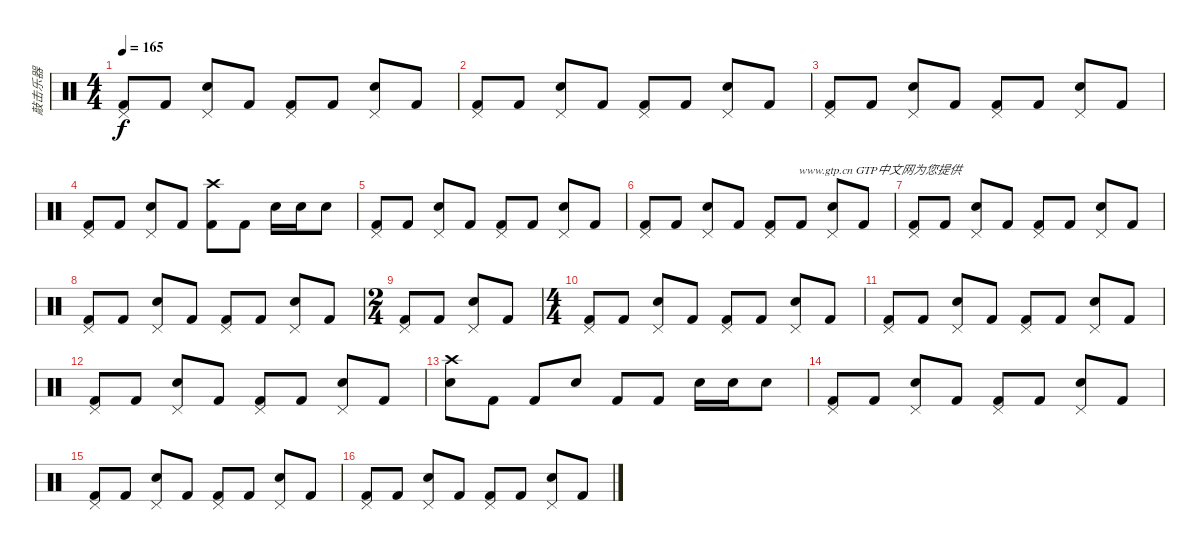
\track ("敲击乐器" "敲击乐器") {instrument percussion}
\staff {score}
\articulation defaults
\ts (4 4)
\tempo 165
\clef neutral
\ks c
("Kick (hit) 2" "Pedal Hi-Hat (hit)").8{dy f} "Kick (hit) 2".8 ("Snare (hit) 2" "Pedal Hi-Hat (hit)").8 "Kick (hit) 2".8 ("Kick (hit) 2" "Pedal Hi-Hat (hit)").8 "Kick (hit) 2".8 ("Snare (hit) 2" "Pedal Hi-Hat (hit)").8 "Kick (hit) 2".8 |
("Kick (hit) 2" "Pedal Hi-Hat (hit)").8 "Kick (hit) 2".8 ("Snare (hit) 2" "Pedal Hi-Hat (hit)").8 "Kick (hit) 2".8 ("Kick (hit) 2" "Pedal Hi-Hat (hit)").8 "Kick (hit) 2".8 ("Snare (hit) 2" "Pedal Hi-Hat (hit)").8 "Kick (hit) 2".8 |
("Kick (hit) 2" "Pedal Hi-Hat (hit)").8 "Kick (hit) 2".8 ("Snare (hit) 2" "Pedal Hi-Hat (hit)").8 "Kick (hit) 2".8 ("Kick (hit) 2" "Pedal Hi-Hat (hit)").8 "Kick (hit) 2".8 ("Snare (hit) 2" "Pedal Hi-Hat (hit)").8 "Kick (hit) 2".8 |
("Kick (hit) 2" "Pedal Hi-Hat (hit)").8 "Kick (hit) 2".8 ("Snare (hit) 2" "Pedal Hi-Hat (hit)").8 "Kick (hit) 2".8 ("Kick (hit) 2" "Crash high (hit)").8 "Kick (hit) 2".8 "Snare (hit) 2".16 "Snare (hit) 2".16 "Snare (hit) 2".8 |
("Kick (hit) 2" "Pedal Hi-Hat (hit)").8 "Kick (hit) 2".8 ("Snare (hit) 2" "Pedal Hi-Hat (hit)").8 "Kick (hit) 2".8 ("Kick (hit) 2" "Pedal Hi-Hat (hit)").8 "Kick (hit) 2".8 ("Snare (hit) 2" "Pedal Hi-Hat (hit)").8 "Kick (hit) 2".8 |
("Kick (hit) 2" "Pedal Hi-Hat (hit)").8 "Kick (hit) 2".8 ("Snare (hit) 2" "Pedal Hi-Hat (hit)").8 "Kick (hit) 2".8{txt "                    www.gtp.cn GTP中文网为您提供"} ("Kick (hit) 2" "Pedal Hi-Hat (hit)").8 "Kick (hit) 2".8 ("Snare (hit) 2" "Pedal Hi-Hat (hit)").8 "Kick (hit) 2".8 |
("Kick (hit) 2" "Pedal Hi-Hat (hit)").8 "Kick (hit) 2".8 ("Snare (hit) 2" "Pedal Hi-Hat (hit)").8 "Kick (hit) 2".8 ("Kick (hit) 2" "Pedal Hi-Hat (hit)").8 "Kick (hit) 2".8 ("Snare (hit) 2" "Pedal Hi-Hat (hit)").8 "Kick (hit) 2".8 |
("Kick (hit) 2" "Pedal Hi-Hat (hit)").8 "Kick (hit) 2".8 ("Snare (hit) 2" "Pedal Hi-Hat (hit)").8 "Kick (hit) 2".8 ("Kick (hit) 2" "Pedal Hi-Hat (hit)").8 "Kick (hit) 2".8 ("Snare (hit) 2" "Pedal Hi-Hat (hit)").8 "Kick (hit) 2".8 |
\ts (2 4)
("Kick (hit) 2" "Pedal Hi-Hat (hit)").8 "Kick (hit) 2".8 ("Snare (hit) 2" "Pedal Hi-Hat (hit)").8 "Kick (hit) 2".8 |
\ts (4 4)
("Kick (hit) 2" "Pedal Hi-Hat (hit)").8 "Kick (hit) 2".8 ("Snare (hit) 2" "Pedal Hi-Hat (hit)").8 "Kick (hit) 2".8 ("Kick (hit) 2" "Pedal Hi-Hat (hit)").8 "Kick (hit) 2".8 ("Snare (hit) 2" "Pedal Hi-Hat (hit)").8 "Kick (hit) 2".8 |
("Kick (hit) 2" "Pedal Hi-Hat (hit)").8 "Kick (hit) 2".8 ("Snare (hit) 2" "Pedal Hi-Hat (hit)").8 "Kick (hit) 2".8 ("Kick (hit) 2" "Pedal Hi-Hat (hit)").8 "Kick (hit) 2".8 ("Snare (hit) 2" "Pedal Hi-Hat (hit)").8 "Kick (hit) 2".8 |
("Kick (hit) 2" "Pedal Hi-Hat (hit)").8 "Kick (hit) 2".8 ("Snare (hit) 2" "Pedal Hi-Hat (hit)").8 "Kick (hit) 2".8 ("Kick (hit) 2" "Pedal Hi-Hat (hit)").8 "Kick (hit) 2".8 ("Snare (hit) 2" "Pedal Hi-Hat (hit)").8 "Kick (hit) 2".8 |
("Snare (hit) 2" "Crash high (hit)").8 "Kick (hit) 2".8 "Kick (hit) 2".8 "Snare (hit) 2".8 "Kick (hit) 2".8 "Kick (hit) 2".8 "Snare (hit) 2".16 "Snare (hit) 2".16 "Snare (hit) 2".8 |
("Kick (hit) 2" "Pedal Hi-Hat (hit)").8 "Kick (hit) 2".8 ("Snare (hit) 2" "Pedal Hi-Hat (hit)").8 "Kick (hit) 2".8 ("Kick (hit) 2" "Pedal Hi-Hat (hit)").8 "Kick (hit) 2".8 ("Snare (hit) 2" "Pedal Hi-Hat (hit)").8 "Kick (hit) 2".8 |
("Kick (hit) 2" "Pedal Hi-Hat (hit)").8 "Kick (hit) 2".8 ("Snare (hit) 2" "Pedal Hi-Hat (hit)").8 "Kick (hit) 2".8 ("Kick (hit) 2" "Pedal Hi-Hat (hit)").8 "Kick (hit) 2".8 ("Snare (hit) 2" "Pedal Hi-Hat (hit)").8 "Kick (hit) 2".8 |
("Kick (hit) 2" "Pedal Hi-Hat (hit)").8 "Kick (hit) 2".8 ("Snare (hit) 2" "Pedal Hi-Hat (hit)").8 "Kick (hit) 2".8 ("Kick (hit) 2" "Pedal Hi-Hat (hit)").8 "Kick (hit) 2".8 ("Snare (hit) 2" "Pedal Hi-Hat (hit)").8 "Kick (hit) 2".8
